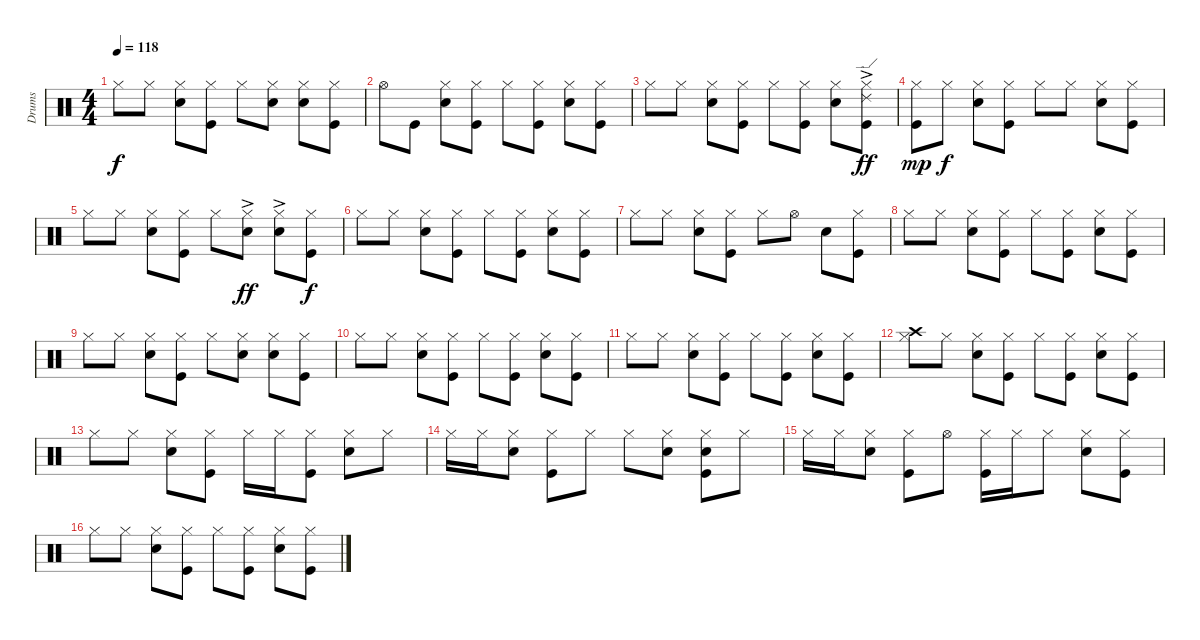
\track ("Drums" "Drums") {instrument percussion}
\staff {score}
\articulation defaults
\ts (4 4)
\tempo 118
\clef neutral
\ks c "Hi-Hat (closed)".8{dy f} "Hi-Hat (closed)".8
("Hi-Hat (closed)" "Snare (hit) 2").8 ("Hi-Hat (closed)" "Kick (hit)").8 "Hi-Hat (closed)".8 ("Hi-Hat (closed)" "Snare (hit) 2").8 ("Hi-Hat (closed)" "Snare (hit) 2").8 ("Hi-Hat (closed)" "Kick (hit)").8 |
"Hi-Hat (open)".8 "Kick (hit)".8 ("Hi-Hat (closed)" "Snare (hit) 2").8 ("Hi-Hat (closed)" "Kick (hit)").8 "Hi-Hat (closed)".8 ("Hi-Hat (closed)" "Kick (hit)").8 ("Hi-Hat (closed)" "Snare (hit) 2").8 ("Hi-Hat (closed)" "Kick (hit)").8 |
"Hi-Hat (closed)".8 "Hi-Hat (closed)".8 ("Hi-Hat (closed)" "Snare (hit) 2").8 ("Hi-Hat (closed)" "Kick (hit)").8 "Hi-Hat (closed)".8 ("Hi-Hat (closed)" "Kick (hit)").8 ("Hi-Hat (closed)" "Snare (hit) 2").8 ("Hi-Hat (closed)" "Ride (edge) 2"{ac} "Kick (hit)").8{dy ff} |
("Hi-Hat (closed)" "Kick (hit)").8{dy mp} "Hi-Hat (closed)".8{dy f} ("Hi-Hat (closed)" "Snare (hit) 2").8 ("Hi-Hat (closed)" "Kick (hit)").8 "Hi-Hat (closed)".8 "Hi-Hat (closed)".8 ("Hi-Hat (closed)" "Snare (hit) 2").8 ("Hi-Hat (closed)" "Kick (hit)").8 |
"Hi-Hat (closed)".8 "Hi-Hat (closed)".8 ("Hi-Hat (closed)" "Snare (hit) 2").8 ("Hi-Hat (closed)" "Kick (hit)").8 "Hi-Hat (closed)".8 ("Hi-Hat (closed)" "Snare (hit) 2"{ac}).8{dy ff} ("Hi-Hat (closed)" "Snare (hit) 2"{ac}).8 ("Hi-Hat (closed)" "Kick (hit)").8{dy f} |
"Hi-Hat (closed)".8 "Hi-Hat (closed)".8 ("Hi-Hat (closed)" "Snare (hit) 2").8 ("Hi-Hat (closed)" "Kick (hit)").8 "Hi-Hat (closed)".8 ("Hi-Hat (closed)" "Kick (hit)").8 ("Hi-Hat (closed)" "Snare (hit) 2").8 ("Hi-Hat (closed)" "Kick (hit)").8 |
"Hi-Hat (closed)".8 "Hi-Hat (closed)".8 ("Hi-Hat (closed)" "Snare (hit) 2").8 ("Hi-Hat (closed)" "Kick (hit)").8 "Hi-Hat (closed)".8 "Hi-Hat (open)".8 "Snare (hit) 2".8 ("Hi-Hat (closed)" "Kick (hit)").8 |
"Hi-Hat (closed)".8 "Hi-Hat (closed)".8 ("Hi-Hat (closed)" "Snare (hit) 2").8 ("Hi-Hat (closed)" "Kick (hit)").8 "Hi-Hat (closed)".8 ("Hi-Hat (closed)" "Kick (hit)").8 ("Hi-Hat (closed)" "Snare (hit) 2").8 ("Hi-Hat (closed)" "Kick (hit)").8 |
"Hi-Hat (closed)".8 "Hi-Hat (closed)".8 ("Hi-Hat (closed)" "Snare (hit) 2").8 ("Hi-Hat (closed)" "Kick (hit)").8 "Hi-Hat (closed)".8 ("Hi-Hat (closed)" "Snare (hit) 2").8 ("Hi-Hat (closed)" "Snare (hit) 2").8 ("Hi-Hat (closed)" "Kick (hit)").8 |
"Hi-Hat (closed)".8 "Hi-Hat (closed)".8 ("Hi-Hat (closed)" "Snare (hit) 2").8 ("Hi-Hat (closed)" "Kick (hit)").8 "Hi-Hat (closed)".8 ("Hi-Hat (closed)" "Kick (hit)").8 ("Hi-Hat (closed)" "Snare (hit) 2").8 ("Hi-Hat (closed)" "Kick (hit)").8 |
"Hi-Hat (closed)".8 "Hi-Hat (closed)".8 ("Hi-Hat (closed)" "Snare (hit) 2").8 ("Hi-Hat (closed)" "Kick (hit)").8 "Hi-Hat (closed)".8 ("Hi-Hat (closed)" "Kick (hit)").8 ("Hi-Hat (closed)" "Snare (hit) 2").8 ("Hi-Hat (closed)" "Kick (hit)").8 |
("Hi-Hat (closed)" "Crash high (hit)").8 "Hi-Hat (closed)".8 ("Hi-Hat (closed)" "Snare (hit) 2").8 ("Hi-Hat (closed)" "Kick (hit)").8 "Hi-Hat (closed)".8 ("Hi-Hat (closed)" "Kick (hit)").8 ("Hi-Hat (closed)" "Snare (hit) 2").8 ("Hi-Hat (closed)" "Kick (hit)").8 |
"Hi-Hat (closed)".8 "Hi-Hat (closed)".8 ("Hi-Hat (closed)" "Snare (hit) 2").8 ("Hi-Hat (closed)" "Kick (hit)").8 "Hi-Hat (closed)".16 "Hi-Hat (closed)".16 ("Hi-Hat (closed)" "Kick (hit)").8 ("Hi-Hat (closed)" "Snare (hit) 2").8 "Hi-Hat (closed)".8 |
"Hi-Hat (closed)".16 "Hi-Hat (closed)".16 ("Hi-Hat (closed)" "Snare (hit) 2").8 ("Hi-Hat (closed)" "Kick (hit)").8 "Hi-Hat (closed)".8 "Hi-Hat (closed)".8 ("Hi-Hat (closed)" "Snare (hit) 2").8 ("Hi-Hat (closed)" "Snare (hit) 2" "Kick (hit)").8 "Hi-Hat (closed)".8 |
"Hi-Hat (closed)".16 "Hi-Hat (closed)".16 ("Hi-Hat (closed)" "Snare (hit) 2").8 ("Hi-Hat (closed)" "Kick (hit)").8 "Hi-Hat (open)".8 ("Hi-Hat (closed)" "Kick (hit)").16 "Hi-Hat (closed)".16 "Hi-Hat (closed)".8 ("Hi-Hat (closed)" "Snare (hit) 2").8 ("Hi-Hat (closed)" "Kick (hit)").8 |
"Hi-Hat (closed)".8 "Hi-Hat (closed)".8 ("Hi-Hat (closed)" "Snare (hit) 2").8 ("Hi-Hat (closed)" "Kick (hit)").8 "Hi-Hat (closed)".8 ("Hi-Hat (closed)" "Kick (hit)").8 ("Hi-Hat (closed)" "Snare (hit) 2").8 ("Hi-Hat (closed)" "Kick (hit)").8
